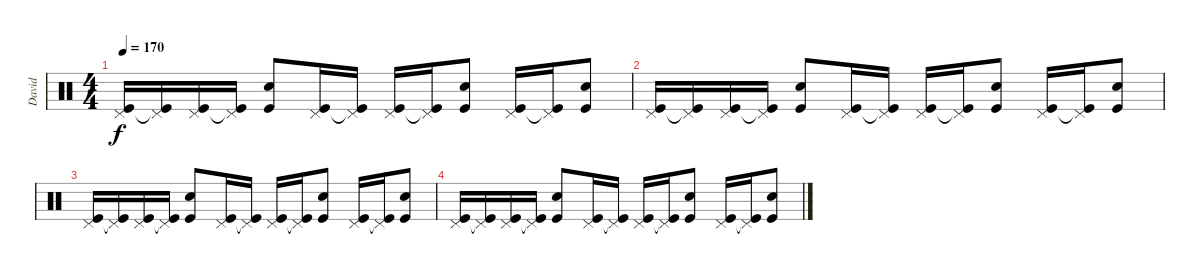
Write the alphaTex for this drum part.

\track ("David" "David") {instrument percussion}
\staff {score}
\articulation defaults
\ts (4 4)
\tempo 170
\clef neutral
\ks c
("Pedal Hi-Hat (hit)" "Kick (hit)").16{dy f} ("Pedal Hi-Hat (hit)" "Kick (hit)"{t}).16 ("Pedal Hi-Hat (hit)" "Kick (hit)").16 ("Pedal Hi-Hat (hit)" "Kick (hit)"{t}).16 ("Snare (hit) 2" "Kick (hit)").8 ("Pedal Hi-Hat (hit)" "Kick (hit)").16 ("Pedal Hi-Hat (hit)" "Kick (hit)"{t}).16 ("Pedal Hi-Hat (hit)" "Kick (hit)").16 ("Pedal Hi-Hat (hit)" "Kick (hit)"{t}).16 ("Snare (hit) 2" "Kick (hit)").8 ("Pedal Hi-Hat (hit)" "Kick (hit)").16 ("Pedal Hi-Hat (hit)" "Kick (hit)"{t}).16 ("Snare (hit) 2" "Kick (hit)").8 |
("Pedal Hi-Hat (hit)" "Kick (hit)").16 ("Pedal Hi-Hat (hit)" "Kick (hit)"{t}).16 ("Pedal Hi-Hat (hit)" "Kick (hit)").16 ("Pedal Hi-Hat (hit)" "Kick (hit)"{t}).16 ("Snare (hit) 2" "Kick (hit)").8 ("Pedal Hi-Hat (hit)" "Kick (hit)").16 ("Pedal Hi-Hat (hit)" "Kick (hit)"{t}).16 ("Pedal Hi-Hat (hit)" "Kick (hit)").16 ("Pedal Hi-Hat (hit)" "Kick (hit)"{t}).16 ("Snare (hit) 2" "Kick (hit)").8 ("Pedal Hi-Hat (hit)" "Kick (hit)").16 ("Pedal Hi-Hat (hit)" "Kick (hit)"{t}).16 ("Snare (hit) 2" "Kick (hit)").8 |
("Pedal Hi-Hat (hit)" "Kick (hit)").16 ("Pedal Hi-Hat (hit)" "Kick (hit)"{t}).16 ("Pedal Hi-Hat (hit)" "Kick (hit)").16 ("Pedal Hi-Hat (hit)" "Kick (hit)"{t}).16 ("Snare (hit) 2" "Kick (hit)").8 ("Pedal Hi-Hat (hit)" "Kick (hit)").16 ("Pedal Hi-Hat (hit)" "Kick (hit)"{t}).16 ("Pedal Hi-Hat (hit)" "Kick (hit)").16 ("Pedal Hi-Hat (hit)" "Kick (hit)"{t}).16 ("Snare (hit) 2" "Kick (hit)").8 ("Pedal Hi-Hat (hit)" "Kick (hit)").16 ("Pedal Hi-Hat (hit)" "Kick (hit)"{t}).16 ("Snare (hit) 2" "Kick (hit)").8 |
("Pedal Hi-Hat (hit)" "Kick (hit)").16 ("Pedal Hi-Hat (hit)" "Kick (hit)"{t}).16 ("Pedal Hi-Hat (hit)" "Kick (hit)").16 ("Pedal Hi-Hat (hit)" "Kick (hit)"{t}).16 ("Snare (hit) 2" "Kick (hit)").8 ("Pedal Hi-Hat (hit)" "Kick (hit)").16 ("Pedal Hi-Hat (hit)" "Kick (hit)"{t}).16 ("Pedal Hi-Hat (hit)" "Kick (hit)").16 ("Pedal Hi-Hat (hit)" "Kick (hit)"{t}).16 ("Snare (hit) 2" "Kick (hit)").8 ("Pedal Hi-Hat (hit)" "Kick (hit)").16 ("Pedal Hi-Hat (hit)" "Kick (hit)"{t}).16 ("Snare (hit) 2" "Kick (hit)").8
